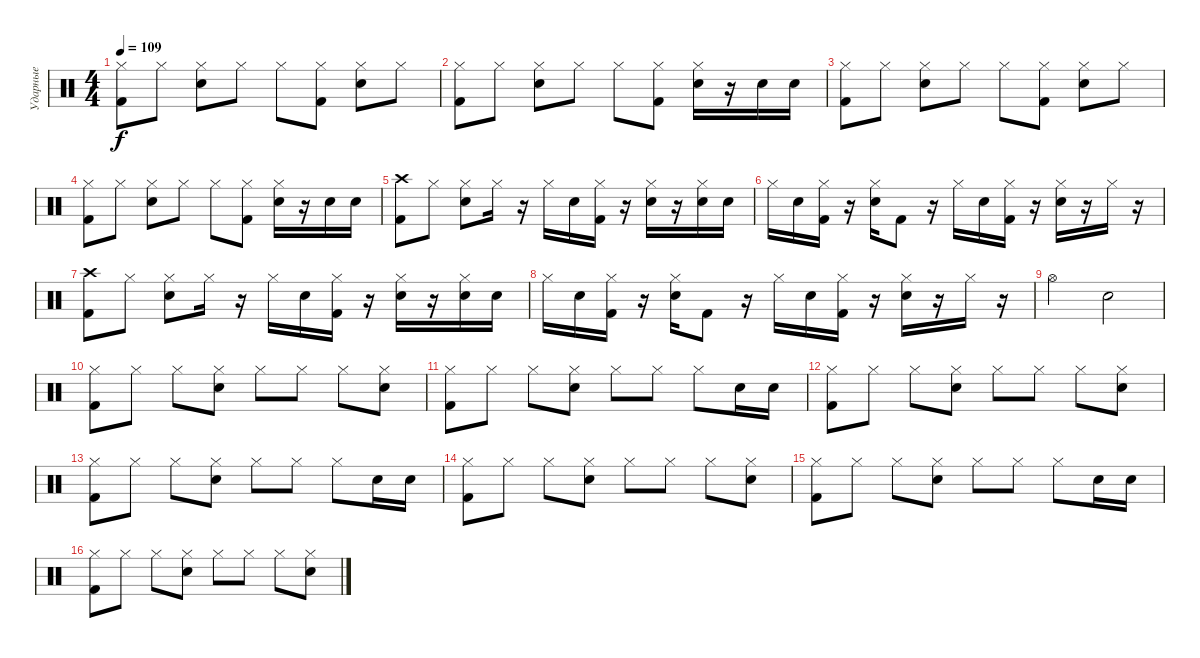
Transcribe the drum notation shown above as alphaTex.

\track ("Ударные" "Ударные") {instrument percussion}
\staff {score}
\articulation defaults
\ts (4 4)
\tempo 109
\clef neutral
\ks c
("Kick (hit) 2" "Hi-Hat (closed)").8{dy f} "Hi-Hat (closed)".8 ("Electric Snare (hit)" "Hi-Hat (closed)").8 "Hi-Hat (closed)".8 "Hi-Hat (closed)".8 ("Kick (hit) 2" "Hi-Hat (closed)").8 ("Electric Snare (hit)" "Hi-Hat (closed)").8 "Hi-Hat (closed)".8 |
("Kick (hit) 2" "Hi-Hat (closed)").8 "Hi-Hat (closed)".8 ("Electric Snare (hit)" "Hi-Hat (closed)").8 "Hi-Hat (closed)".8 "Hi-Hat (closed)".8 ("Kick (hit) 2" "Hi-Hat (closed)").8 ("Electric Snare (hit)" "Hi-Hat (closed)").16 r.16 "Electric Snare (hit)".16 "Electric Snare (hit)".16 |
("Kick (hit) 2" "Hi-Hat (closed)").8 "Hi-Hat (closed)".8 ("Electric Snare (hit)" "Hi-Hat (closed)").8 "Hi-Hat (closed)".8 "Hi-Hat (closed)".8 ("Kick (hit) 2" "Hi-Hat (closed)").8 ("Electric Snare (hit)" "Hi-Hat (closed)").8 "Hi-Hat (closed)".8 |
("Kick (hit) 2" "Hi-Hat (closed)").8 "Hi-Hat (closed)".8 ("Electric Snare (hit)" "Hi-Hat (closed)").8 "Hi-Hat (closed)".8 "Hi-Hat (closed)".8 ("Kick (hit) 2" "Hi-Hat (closed)").8 ("Electric Snare (hit)" "Hi-Hat (closed)").16 r.16 "Electric Snare (hit)".16 "Electric Snare (hit)".16 |
("Kick (hit) 2" "Crash high (hit)").8 "Hi-Hat (closed)".8 ("Electric Snare (hit)" "Hi-Hat (closed)").8 "Hi-Hat (closed)".16 r.16 "Hi-Hat (closed)".16 "Electric Snare (hit)".16 ("Kick (hit) 2" "Hi-Hat (closed)").16 r.16 ("Electric Snare (hit)" "Hi-Hat (closed)").16 r.16 ("Electric Snare (hit)" "Hi-Hat (closed)").16 "Electric Snare (hit)".16 |
"Hi-Hat (closed)".16 "Electric Snare (hit)".16 ("Kick (hit) 2" "Hi-Hat (closed)").16 r.16 ("Electric Snare (hit)" "Hi-Hat (closed)").16 "Kick (hit) 2".8 r.16 "Hi-Hat (closed)".16 "Electric Snare (hit)".16 ("Kick (hit) 2" "Hi-Hat (closed)").16 r.16 ("Electric Snare (hit)" "Hi-Hat (closed)").16 r.16 "Hi-Hat (closed)".16 r.16 |
("Kick (hit) 2" "Crash high (hit)").8 "Hi-Hat (closed)".8 ("Electric Snare (hit)" "Hi-Hat (closed)").8 "Hi-Hat (closed)".16 r.16 "Hi-Hat (closed)".16 "Electric Snare (hit)".16 ("Kick (hit) 2" "Hi-Hat (closed)").16 r.16 ("Electric Snare (hit)" "Hi-Hat (closed)").16 r.16 ("Electric Snare (hit)" "Hi-Hat (closed)").16 "Electric Snare (hit)".16 |
"Hi-Hat (closed)".16 "Electric Snare (hit)".16 ("Kick (hit) 2" "Hi-Hat (closed)").16 r.16 ("Electric Snare (hit)" "Hi-Hat (closed)").16 "Kick (hit) 2".8 r.16 "Hi-Hat (closed)".16 "Electric Snare (hit)".16 ("Kick (hit) 2" "Hi-Hat (closed)").16 r.16 ("Electric Snare (hit)" "Hi-Hat (closed)").16 r.16 "Hi-Hat (closed)".16 r.16 |
"Hi-Hat (open)".2 "Electric Snare (hit)".2 |
("Kick (hit) 2" "Hi-Hat (closed)").8 "Hi-Hat (closed)".8 "Hi-Hat (closed)".8 ("Electric Snare (hit)" "Hi-Hat (closed)").8 "Hi-Hat (closed)".8 "Hi-Hat (closed)".8 "Hi-Hat (closed)".8 ("Electric Snare (hit)" "Hi-Hat (closed)").8 |
("Kick (hit) 2" "Hi-Hat (closed)").8 "Hi-Hat (closed)".8 "Hi-Hat (closed)".8 ("Electric Snare (hit)" "Hi-Hat (closed)").8 "Hi-Hat (closed)".8 "Hi-Hat (closed)".8 "Hi-Hat (closed)".8 "Electric Snare (hit)".16 "Electric Snare (hit)".16 |
("Kick (hit) 2" "Hi-Hat (closed)").8 "Hi-Hat (closed)".8 "Hi-Hat (closed)".8 ("Electric Snare (hit)" "Hi-Hat (closed)").8 "Hi-Hat (closed)".8 "Hi-Hat (closed)".8 "Hi-Hat (closed)".8 ("Electric Snare (hit)" "Hi-Hat (closed)").8 |
("Kick (hit) 2" "Hi-Hat (closed)").8 "Hi-Hat (closed)".8 "Hi-Hat (closed)".8 ("Electric Snare (hit)" "Hi-Hat (closed)").8 "Hi-Hat (closed)".8 "Hi-Hat (closed)".8 "Hi-Hat (closed)".8 "Electric Snare (hit)".16 "Electric Snare (hit)".16 |
("Kick (hit) 2" "Hi-Hat (closed)").8 "Hi-Hat (closed)".8 "Hi-Hat (closed)".8 ("Electric Snare (hit)" "Hi-Hat (closed)").8 "Hi-Hat (closed)".8 "Hi-Hat (closed)".8 "Hi-Hat (closed)".8 ("Electric Snare (hit)" "Hi-Hat (closed)").8 |
("Kick (hit) 2" "Hi-Hat (closed)").8 "Hi-Hat (closed)".8 "Hi-Hat (closed)".8 ("Electric Snare (hit)" "Hi-Hat (closed)").8 "Hi-Hat (closed)".8 "Hi-Hat (closed)".8 "Hi-Hat (closed)".8 "Electric Snare (hit)".16 "Electric Snare (hit)".16 |
("Kick (hit) 2" "Hi-Hat (closed)").8 "Hi-Hat (closed)".8 "Hi-Hat (closed)".8 ("Electric Snare (hit)" "Hi-Hat (closed)").8 "Hi-Hat (closed)".8 "Hi-Hat (closed)".8 "Hi-Hat (closed)".8 ("Electric Snare (hit)" "Hi-Hat (closed)").8
